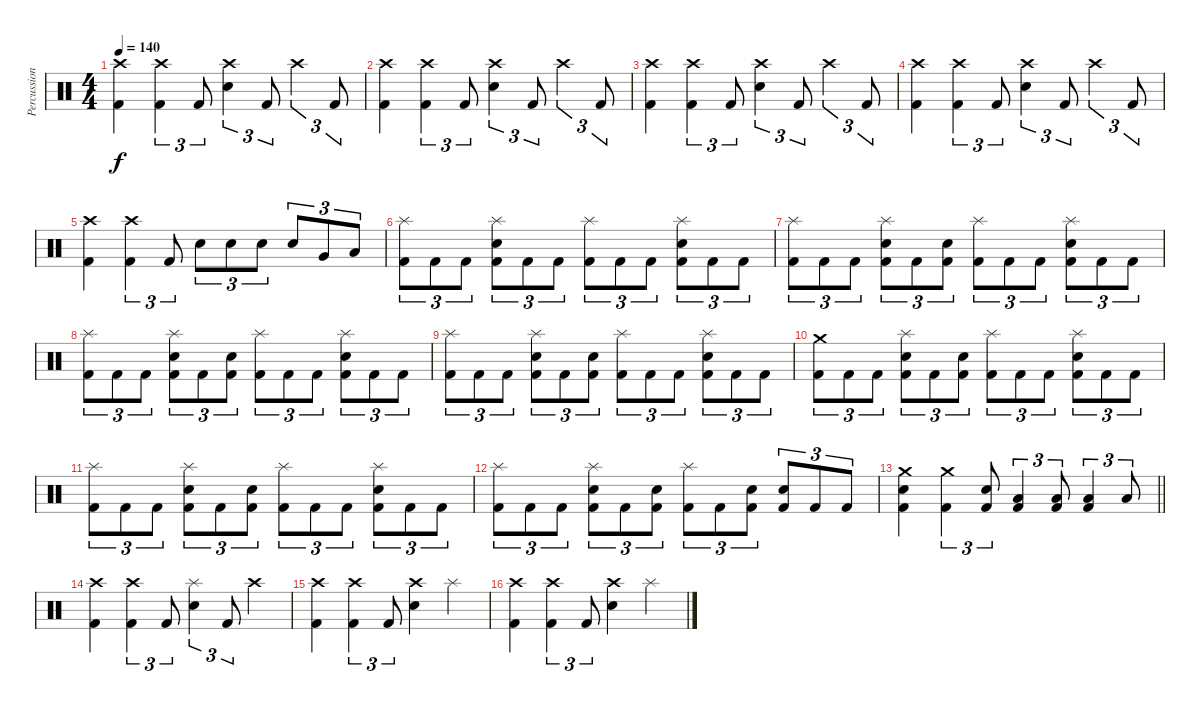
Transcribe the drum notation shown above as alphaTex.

\track ("Percussion" "Percussion") {instrument percussion}
\staff {score}
\articulation defaults
\ts (4 4)
\tempo 140
\clef neutral
\ks c
("Crash high (hit)" "Kick (hit) 2").4{dy f} ("Crash high (hit)" "Kick (hit) 2").4{tu (3 2)} "Kick (hit) 2".8{tu (3 2)} ("Crash high (hit)" "Electric Snare (hit)").4{tu (3 2)} "Kick (hit) 2".8{tu (3 2)} "Crash high (hit)".4{tu (3 2)} "Kick (hit) 2".8{tu (3 2)} |
("Crash high (hit)" "Kick (hit) 2").4 ("Crash high (hit)" "Kick (hit) 2").4{tu (3 2)} "Kick (hit) 2".8{tu (3 2)} ("Crash high (hit)" "Electric Snare (hit)").4{tu (3 2)} "Kick (hit) 2".8{tu (3 2)} "Crash high (hit)".4{tu (3 2)} "Kick (hit) 2".8{tu (3 2)} |
("Crash high (hit)" "Kick (hit) 2").4 ("Crash high (hit)" "Kick (hit) 2").4{tu (3 2)} "Kick (hit) 2".8{tu (3 2)} ("Crash high (hit)" "Electric Snare (hit)").4{tu (3 2)} "Kick (hit) 2".8{tu (3 2)} "Crash high (hit)".4{tu (3 2)} "Kick (hit) 2".8{tu (3 2)} |
("Crash high (hit)" "Kick (hit) 2").4 ("Crash high (hit)" "Kick (hit) 2").4{tu (3 2)} "Kick (hit) 2".8{tu (3 2)} ("Crash high (hit)" "Electric Snare (hit)").4{tu (3 2)} "Kick (hit) 2".8{tu (3 2)} "Crash high (hit)".4{tu (3 2)} "Kick (hit) 2".8{tu (3 2)} |
("Crash high (hit)" "Kick (hit) 2").4 ("Crash high (hit)" "Kick (hit) 2").4{tu (3 2)} "Kick (hit) 2".8{tu (3 2)} "Electric Snare (hit)".8{tu (3 2)} "Electric Snare (hit)".8{tu (3 2)} "Electric Snare (hit)".8{tu (3 2)} "Electric Snare (hit)".8{tu (3 2)} "Very Low Tom (hit)".8{tu (3 2)} "Low Floor Tom (hit)".8{tu (3 2)} |
("Splash (hit)" "Kick (hit) 2").8{tu (3 2)} "Kick (hit) 2".8{tu (3 2)} "Kick (hit) 2".8{tu (3 2)} ("Splash (hit)" "Electric Snare (hit)" "Kick (hit) 2").8{tu (3 2)} "Kick (hit) 2".8{tu (3 2)} "Kick (hit) 2".8{tu (3 2)} ("Splash (hit)" "Kick (hit) 2").8{tu (3 2)} "Kick (hit) 2".8{tu (3 2)} "Kick (hit) 2".8{tu (3 2)} ("Splash (hit)" "Electric Snare (hit)" "Kick (hit) 2").8{tu (3 2)} "Kick (hit) 2".8{tu (3 2)} "Kick (hit) 2".8{tu (3 2)} |
("Splash (hit)" "Kick (hit) 2").8{tu (3 2)} "Kick (hit) 2".8{tu (3 2)} "Kick (hit) 2".8{tu (3 2)} ("Splash (hit)" "Electric Snare (hit)" "Kick (hit) 2").8{tu (3 2)} "Kick (hit) 2".8{tu (3 2)} ("Electric Snare (hit)" "Kick (hit) 2").8{tu (3 2)} ("Splash (hit)" "Kick (hit) 2").8{tu (3 2)} "Kick (hit) 2".8{tu (3 2)} "Kick (hit) 2".8{tu (3 2)} ("Splash (hit)" "Electric Snare (hit)" "Kick (hit) 2").8{tu (3 2)} "Kick (hit) 2".8{tu (3 2)} "Kick (hit) 2".8{tu (3 2)} |
("Splash (hit)" "Kick (hit) 2").8{tu (3 2)} "Kick (hit) 2".8{tu (3 2)} "Kick (hit) 2".8{tu (3 2)} ("Splash (hit)" "Electric Snare (hit)" "Kick (hit) 2").8{tu (3 2)} "Kick (hit) 2".8{tu (3 2)} ("Electric Snare (hit)" "Kick (hit) 2").8{tu (3 2)} ("Splash (hit)" "Kick (hit) 2").8{tu (3 2)} "Kick (hit) 2".8{tu (3 2)} "Kick (hit) 2".8{tu (3 2)} ("Splash (hit)" "Electric Snare (hit)" "Kick (hit) 2").8{tu (3 2)} "Kick (hit) 2".8{tu (3 2)} "Kick (hit) 2".8{tu (3 2)} |
("Splash (hit)" "Kick (hit) 2").8{tu (3 2)} "Kick (hit) 2".8{tu (3 2)} "Kick (hit) 2".8{tu (3 2)} ("Splash (hit)" "Electric Snare (hit)" "Kick (hit) 2").8{tu (3 2)} "Kick (hit) 2".8{tu (3 2)} ("Electric Snare (hit)" "Kick (hit) 2").8{tu (3 2)} ("Splash (hit)" "Kick (hit) 2").8{tu (3 2)} "Kick (hit) 2".8{tu (3 2)} "Kick (hit) 2".8{tu (3 2)} ("Splash (hit)" "Electric Snare (hit)" "Kick (hit) 2").8{tu (3 2)} "Kick (hit) 2".8{tu (3 2)} "Kick (hit) 2".8{tu (3 2)} |
("Crash medium (hit)" "Kick (hit) 2").8{tu (3 2)} "Kick (hit) 2".8{tu (3 2)} "Kick (hit) 2".8{tu (3 2)} ("Splash (hit)" "Electric Snare (hit)" "Kick (hit) 2").8{tu (3 2)} "Kick (hit) 2".8{tu (3 2)} ("Electric Snare (hit)" "Kick (hit) 2").8{tu (3 2)} ("Splash (hit)" "Kick (hit) 2").8{tu (3 2)} "Kick (hit) 2".8{tu (3 2)} "Kick (hit) 2".8{tu (3 2)} ("Splash (hit)" "Electric Snare (hit)" "Kick (hit) 2").8{tu (3 2)} "Kick (hit) 2".8{tu (3 2)} "Kick (hit) 2".8{tu (3 2)} |
("Splash (hit)" "Kick (hit) 2").8{tu (3 2)} "Kick (hit) 2".8{tu (3 2)} "Kick (hit) 2".8{tu (3 2)} ("Splash (hit)" "Electric Snare (hit)" "Kick (hit) 2").8{tu (3 2)} "Kick (hit) 2".8{tu (3 2)} ("Electric Snare (hit)" "Kick (hit) 2").8{tu (3 2)} ("Splash (hit)" "Kick (hit) 2").8{tu (3 2)} "Kick (hit) 2".8{tu (3 2)} "Kick (hit) 2".8{tu (3 2)} ("Splash (hit)" "Electric Snare (hit)" "Kick (hit) 2").8{tu (3 2)} "Kick (hit) 2".8{tu (3 2)} "Kick (hit) 2".8{tu (3 2)} |
("Splash (hit)" "Kick (hit) 2").8{tu (3 2)} "Kick (hit) 2".8{tu (3 2)} "Kick (hit) 2".8{tu (3 2)} ("Splash (hit)" "Electric Snare (hit)" "Kick (hit) 2").8{tu (3 2)} "Kick (hit) 2".8{tu (3 2)} ("Electric Snare (hit)" "Kick (hit) 2").8{tu (3 2)} ("Splash (hit)" "Kick (hit) 2").8{tu (3 2)} "Kick (hit) 2".8{tu (3 2)} ("Electric Snare (hit)" "Kick (hit) 2").8{tu (3 2)} ("Electric Snare (hit)" "Kick (hit) 2").8{tu (3 2)} "Kick (hit) 2".8{tu (3 2)} "Kick (hit) 2".8{tu (3 2)} |
\barLineRight lightlight
("Crash medium (hit)" "Electric Snare (hit)" "Kick (hit) 2").4 ("Crash medium (hit)" "Kick (hit) 2").4{tu (3 2)} ("Electric Snare (hit)" "Kick (hit) 2").8{tu (3 2)} ("Low Tom (hit)" "Kick (hit) 2").4{tu (3 2)} ("Low Floor Tom (hit)" "Kick (hit) 2").8{tu (3 2)} ("Low Floor Tom (hit)" "Kick (hit) 2").4{tu (3 2)} "Low Floor Tom (hit)".8{tu (3 2)} |
\section ("" "")
("Crash high (hit)" "Kick (hit) 2").4 ("Crash high (hit)" "Kick (hit) 2").4{tu (3 2)} "Kick (hit) 2".8{tu (3 2)} ("Splash (hit)" "Electric Snare (hit)").4{tu (3 2)} "Kick (hit) 2".8{tu (3 2)} "Crash high (hit)".4 |
("Crash high (hit)" "Kick (hit) 2").4 ("Crash high (hit)" "Kick (hit) 2").4{tu (3 2)} "Kick (hit) 2".8{tu (3 2)} ("Crash high (hit)" "Electric Snare (hit)").4 "Splash (hit)".4 |
("Crash high (hit)" "Kick (hit) 2").4 ("Crash high (hit)" "Kick (hit) 2").4{tu (3 2)} "Kick (hit) 2".8{tu (3 2)} ("Crash high (hit)" "Electric Snare (hit)").4 "Splash (hit)".4
